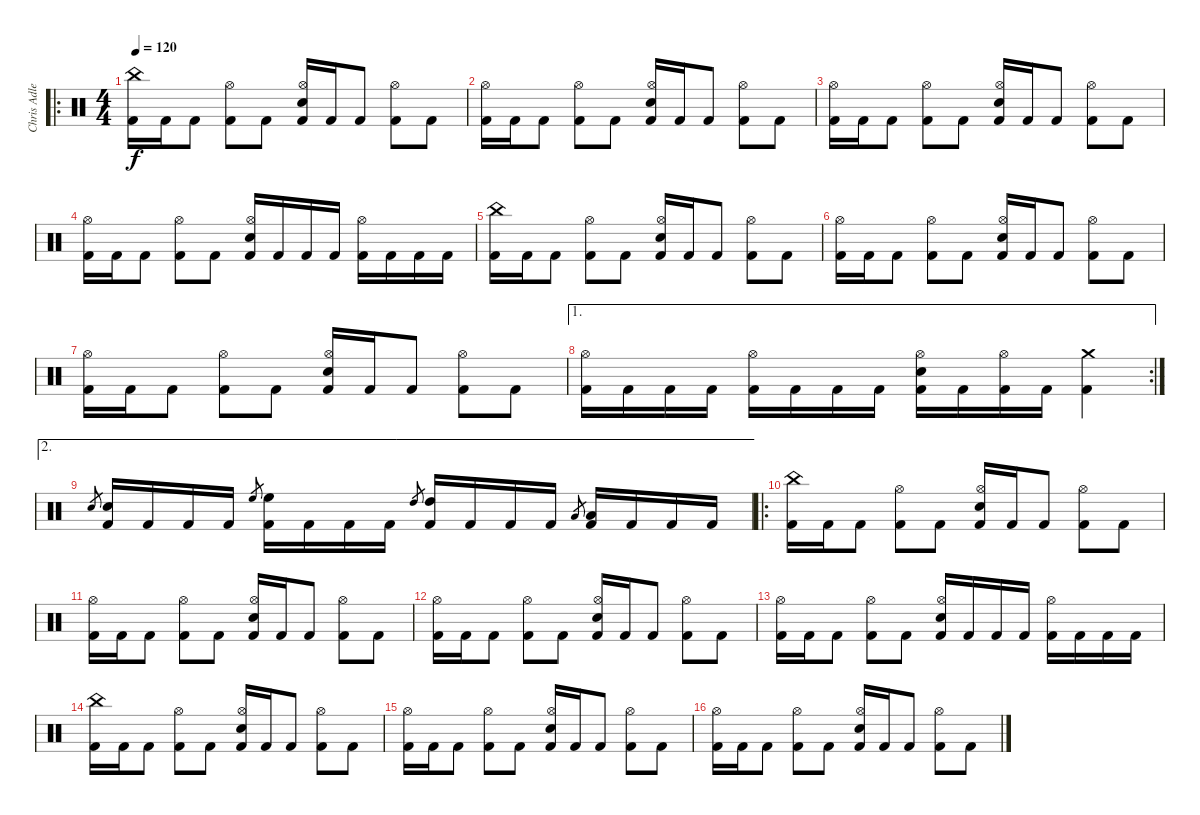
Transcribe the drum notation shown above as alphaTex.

\track ("Chris Adler" "Chris Adle") {instrument percussion}
\staff {score}
\articulation defaults
\ro
\ts (4 4)
\tempo 120
\clef neutral
\ks c
("China (hit)" "Kick (hit) 2").16{dy f} "Kick (hit) 2".16 "Kick (hit) 2".8 ("Hi-Hat (open)" "Kick (hit) 2").8 "Kick (hit) 2".8 ("Hi-Hat (open)" "Snare (hit) 2" "Kick (hit) 2").16 "Kick (hit) 2".16 "Kick (hit) 2".8 ("Hi-Hat (open)" "Kick (hit) 2").8 "Kick (hit) 2".8 |
("Hi-Hat (open)" "Kick (hit) 2").16 "Kick (hit) 2".16 "Kick (hit) 2".8 ("Hi-Hat (open)" "Kick (hit) 2").8 "Kick (hit) 2".8 ("Hi-Hat (open)" "Snare (hit) 2" "Kick (hit) 2").16 "Kick (hit) 2".16 "Kick (hit) 2".8 ("Hi-Hat (open)" "Kick (hit) 2").8 "Kick (hit) 2".8 |
("Hi-Hat (open)" "Kick (hit) 2").16 "Kick (hit) 2".16 "Kick (hit) 2".8 ("Hi-Hat (open)" "Kick (hit) 2").8 "Kick (hit) 2".8 ("Hi-Hat (open)" "Snare (hit) 2" "Kick (hit) 2").16 "Kick (hit) 2".16 "Kick (hit) 2".8 ("Hi-Hat (open)" "Kick (hit) 2").8 "Kick (hit) 2".8 |
("Hi-Hat (open)" "Kick (hit) 2").16 "Kick (hit) 2".16 "Kick (hit) 2".8 ("Hi-Hat (open)" "Kick (hit) 2").8 "Kick (hit) 2".8 ("Hi-Hat (open)" "Snare (hit) 2" "Kick (hit) 2").16 "Kick (hit) 2".16 "Kick (hit) 2".16 "Kick (hit) 2".16 ("Hi-Hat (open)" "Kick (hit) 2").16 "Kick (hit) 2".16 "Kick (hit) 2".16 "Kick (hit) 2".16 |
("China (hit)" "Kick (hit) 2").16 "Kick (hit) 2".16 "Kick (hit) 2".8 ("Hi-Hat (open)" "Kick (hit) 2").8 "Kick (hit) 2".8 ("Hi-Hat (open)" "Snare (hit) 2" "Kick (hit) 2").16 "Kick (hit) 2".16 "Kick (hit) 2".8 ("Hi-Hat (open)" "Kick (hit) 2").8 "Kick (hit) 2".8 |
("Hi-Hat (open)" "Kick (hit) 2").16 "Kick (hit) 2".16 "Kick (hit) 2".8 ("Hi-Hat (open)" "Kick (hit) 2").8 "Kick (hit) 2".8 ("Hi-Hat (open)" "Snare (hit) 2" "Kick (hit) 2").16 "Kick (hit) 2".16 "Kick (hit) 2".8 ("Hi-Hat (open)" "Kick (hit) 2").8 "Kick (hit) 2".8 |
("Hi-Hat (open)" "Kick (hit) 2").16 "Kick (hit) 2".16 "Kick (hit) 2".8 ("Hi-Hat (open)" "Kick (hit) 2").8 "Kick (hit) 2".8 ("Hi-Hat (open)" "Snare (hit) 2" "Kick (hit) 2").16 "Kick (hit) 2".16 "Kick (hit) 2".8 ("Hi-Hat (open)" "Kick (hit) 2").8 "Kick (hit) 2".8 |
\ae 1
\rc 2
("Hi-Hat (open)" "Kick (hit) 2").16 "Kick (hit) 2".16 "Kick (hit) 2".16 "Kick (hit) 2".16 ("Hi-Hat (open)" "Kick (hit) 2").16 "Kick (hit) 2".16 "Kick (hit) 2".16 "Kick (hit) 2".16 ("Hi-Hat (open)" "Snare (hit) 2" "Kick (hit) 2").16 "Kick (hit) 2".16 ("Hi-Hat (open)" "Kick (hit) 2").16 "Kick (hit) 2".16 ("Crash medium (hit)" "Kick (hit) 2").4 |
\ae 2 "Snare (hit) 2".8{gr}
("Snare (hit) 2" "Kick (hit) 2").16 "Kick (hit) 2".16 "Kick (hit) 2".16 "Kick (hit) 2".16 "High Floor Tom (hit)".8{gr} ("High Floor Tom (hit)" "Kick (hit) 2").16 "Kick (hit) 2".16 "Kick (hit) 2".16 "Kick (hit) 2".16 "High Tom (hit)".8{gr} ("High Tom (hit)" "Kick (hit) 2").16 "Kick (hit) 2".16 "Kick (hit) 2".16 "Kick (hit) 2".16 "Low Floor Tom (hit)".8{gr} ("Low Floor Tom (hit)" "Kick (hit) 2").16 "Kick (hit) 2".16 "Kick (hit) 2".16 "Kick (hit) 2".16 |
\ro
("China (hit)" "Kick (hit) 2").16 "Kick (hit) 2".16 "Kick (hit) 2".8 ("Hi-Hat (open)" "Kick (hit) 2").8 "Kick (hit) 2".8 ("Hi-Hat (open)" "Snare (hit) 2" "Kick (hit) 2").16 "Kick (hit) 2".16 "Kick (hit) 2".8 ("Hi-Hat (open)" "Kick (hit) 2").8 "Kick (hit) 2".8 |
("Hi-Hat (open)" "Kick (hit) 2").16 "Kick (hit) 2".16 "Kick (hit) 2".8 ("Hi-Hat (open)" "Kick (hit) 2").8 "Kick (hit) 2".8 ("Hi-Hat (open)" "Snare (hit) 2" "Kick (hit) 2").16 "Kick (hit) 2".16 "Kick (hit) 2".8 ("Hi-Hat (open)" "Kick (hit) 2").8 "Kick (hit) 2".8 |
("Hi-Hat (open)" "Kick (hit) 2").16 "Kick (hit) 2".16 "Kick (hit) 2".8 ("Hi-Hat (open)" "Kick (hit) 2").8 "Kick (hit) 2".8 ("Hi-Hat (open)" "Snare (hit) 2" "Kick (hit) 2").16 "Kick (hit) 2".16 "Kick (hit) 2".8 ("Hi-Hat (open)" "Kick (hit) 2").8 "Kick (hit) 2".8 |
("Hi-Hat (open)" "Kick (hit) 2").16 "Kick (hit) 2".16 "Kick (hit) 2".8 ("Hi-Hat (open)" "Kick (hit) 2").8 "Kick (hit) 2".8 ("Hi-Hat (open)" "Snare (hit) 2" "Kick (hit) 2").16 "Kick (hit) 2".16 "Kick (hit) 2".16 "Kick (hit) 2".16 ("Hi-Hat (open)" "Kick (hit) 2").16 "Kick (hit) 2".16 "Kick (hit) 2".16 "Kick (hit) 2".16 |
("China (hit)" "Kick (hit) 2").16 "Kick (hit) 2".16 "Kick (hit) 2".8 ("Hi-Hat (open)" "Kick (hit) 2").8 "Kick (hit) 2".8 ("Hi-Hat (open)" "Snare (hit) 2" "Kick (hit) 2").16 "Kick (hit) 2".16 "Kick (hit) 2".8 ("Hi-Hat (open)" "Kick (hit) 2").8 "Kick (hit) 2".8 |
("Hi-Hat (open)" "Kick (hit) 2").16 "Kick (hit) 2".16 "Kick (hit) 2".8 ("Hi-Hat (open)" "Kick (hit) 2").8 "Kick (hit) 2".8 ("Hi-Hat (open)" "Snare (hit) 2" "Kick (hit) 2").16 "Kick (hit) 2".16 "Kick (hit) 2".8 ("Hi-Hat (open)" "Kick (hit) 2").8 "Kick (hit) 2".8 |
("Hi-Hat (open)" "Kick (hit) 2").16 "Kick (hit) 2".16 "Kick (hit) 2".8 ("Hi-Hat (open)" "Kick (hit) 2").8 "Kick (hit) 2".8 ("Hi-Hat (open)" "Snare (hit) 2" "Kick (hit) 2").16 "Kick (hit) 2".16 "Kick (hit) 2".8 ("Hi-Hat (open)" "Kick (hit) 2").8 "Kick (hit) 2".8
